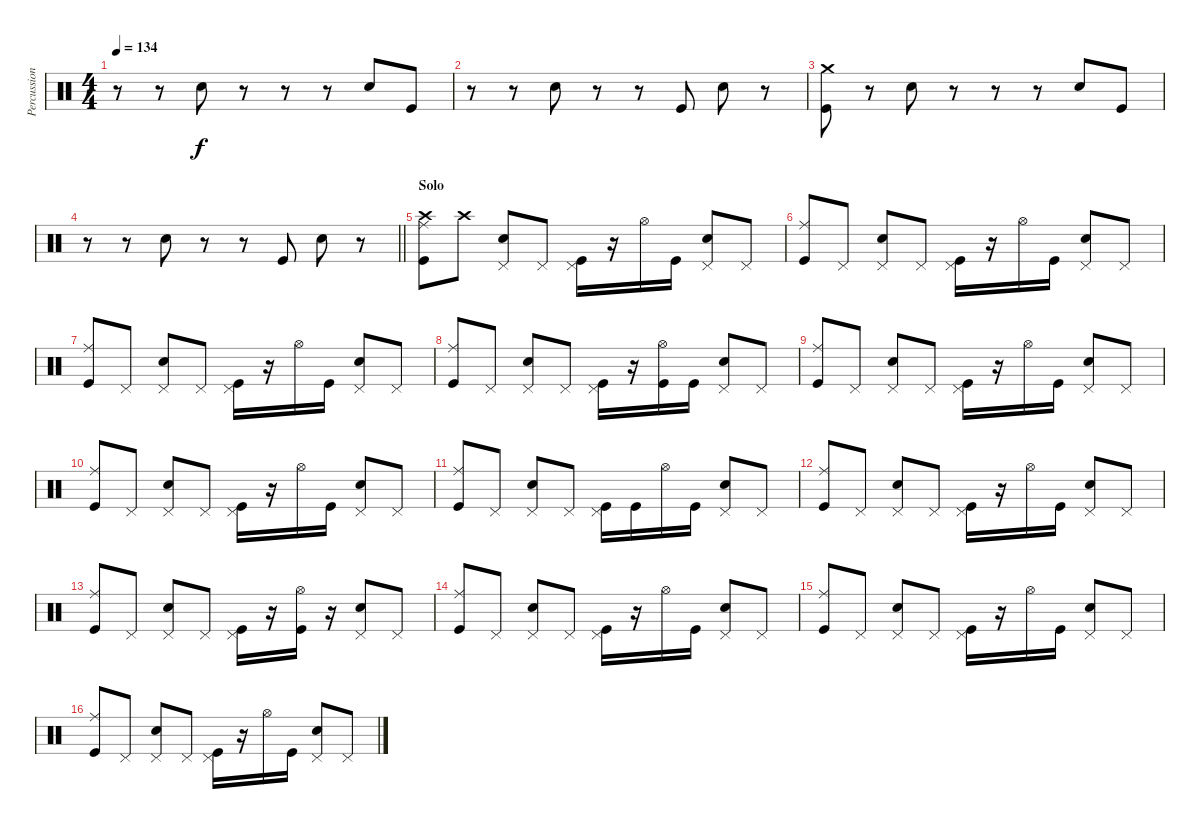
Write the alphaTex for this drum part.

\track ("Percussion" "Percussion") {instrument percussion}
\staff {score}
\articulation defaults
\ts (4 4)
\tempo 134
\clef neutral
\ks c
r.8{dy f} r.8 "Snare (hit) 2".8 r.8 r.8 r.8 "Snare (hit) 2".8 "Kick (hit)".8 |
r.8 r.8 "Snare (hit) 2".8 r.8 r.8 "Kick (hit)".8 "Snare (hit) 2".8 r.8 |
("Crash medium (hit)" "Kick (hit)").8 r.8 "Snare (hit) 2".8 r.8 r.8 r.8 "Snare (hit) 2".8 "Kick (hit)".8 |
\barLineRight lightlight
r.8 r.8 "Snare (hit) 2".8 r.8 r.8 "Kick (hit)".8 "Snare (hit) 2".8 r.8 |
\section ("" "Solo")
("Crash high (hit)" "Ride (middle)" "Kick (hit)").8 "Crash high (hit)".8 ("Pedal Hi-Hat (hit)" "Electric Snare (hit)").8 "Pedal Hi-Hat (hit)".8 ("Pedal Hi-Hat (hit)" "Kick (hit)").16 r.16 "Hi-Hat (open)".16 "Kick (hit)".16 ("Pedal Hi-Hat (hit)" "Electric Snare (hit)").8 "Pedal Hi-Hat (hit)".8 |
("Ride (middle)" "Kick (hit)").8 "Pedal Hi-Hat (hit)".8 ("Pedal Hi-Hat (hit)" "Electric Snare (hit)").8 "Pedal Hi-Hat (hit)".8 ("Pedal Hi-Hat (hit)" "Kick (hit)").16 r.16 "Hi-Hat (open)".16 "Kick (hit)".16 ("Pedal Hi-Hat (hit)" "Electric Snare (hit)").8 "Pedal Hi-Hat (hit)".8 |
("Ride (middle)" "Kick (hit)").8 "Pedal Hi-Hat (hit)".8 ("Pedal Hi-Hat (hit)" "Electric Snare (hit)").8 "Pedal Hi-Hat (hit)".8 ("Pedal Hi-Hat (hit)" "Kick (hit)").16 r.16 "Hi-Hat (open)".16 "Kick (hit)".16 ("Pedal Hi-Hat (hit)" "Electric Snare (hit)").8 "Pedal Hi-Hat (hit)".8 |
("Ride (middle)" "Kick (hit)").8 "Pedal Hi-Hat (hit)".8 ("Pedal Hi-Hat (hit)" "Electric Snare (hit)").8 "Pedal Hi-Hat (hit)".8 ("Pedal Hi-Hat (hit)" "Kick (hit)").16 r.16 ("Hi-Hat (open)" "Kick (hit)").16 "Kick (hit)".16 ("Pedal Hi-Hat (hit)" "Electric Snare (hit)").8 "Pedal Hi-Hat (hit)".8 |
("Ride (middle)" "Kick (hit)").8 "Pedal Hi-Hat (hit)".8 ("Pedal Hi-Hat (hit)" "Electric Snare (hit)").8 "Pedal Hi-Hat (hit)".8 ("Pedal Hi-Hat (hit)" "Kick (hit)").16 r.16 "Hi-Hat (open)".16 "Kick (hit)".16 ("Pedal Hi-Hat (hit)" "Electric Snare (hit)").8 "Pedal Hi-Hat (hit)".8 |
("Ride (middle)" "Kick (hit)").8 "Pedal Hi-Hat (hit)".8 ("Pedal Hi-Hat (hit)" "Electric Snare (hit)").8 "Pedal Hi-Hat (hit)".8 ("Pedal Hi-Hat (hit)" "Kick (hit)").16 r.16 "Hi-Hat (open)".16 "Kick (hit)".16 ("Pedal Hi-Hat (hit)" "Electric Snare (hit)").8 "Pedal Hi-Hat (hit)".8 |
("Ride (middle)" "Kick (hit)").8 "Pedal Hi-Hat (hit)".8 ("Pedal Hi-Hat (hit)" "Electric Snare (hit)").8 "Pedal Hi-Hat (hit)".8 ("Pedal Hi-Hat (hit)" "Kick (hit)").16 "Kick (hit)".16 "Hi-Hat (open)".16 "Kick (hit)".16 ("Pedal Hi-Hat (hit)" "Electric Snare (hit)").8 "Pedal Hi-Hat (hit)".8 |
("Ride (middle)" "Kick (hit)").8 "Pedal Hi-Hat (hit)".8 ("Pedal Hi-Hat (hit)" "Electric Snare (hit)").8 "Pedal Hi-Hat (hit)".8 ("Pedal Hi-Hat (hit)" "Kick (hit)").16 r.16 "Hi-Hat (open)".16 "Kick (hit)".16 ("Pedal Hi-Hat (hit)" "Electric Snare (hit)").8 "Pedal Hi-Hat (hit)".8 |
("Ride (middle)" "Kick (hit)").8 "Pedal Hi-Hat (hit)".8 ("Pedal Hi-Hat (hit)" "Electric Snare (hit)").8 "Pedal Hi-Hat (hit)".8 ("Pedal Hi-Hat (hit)" "Kick (hit)").16 r.16 ("Hi-Hat (open)" "Kick (hit)").16 r.16 ("Pedal Hi-Hat (hit)" "Electric Snare (hit)").8 "Pedal Hi-Hat (hit)".8 |
("Ride (middle)" "Kick (hit)").8 "Pedal Hi-Hat (hit)".8 ("Pedal Hi-Hat (hit)" "Electric Snare (hit)").8 "Pedal Hi-Hat (hit)".8 ("Pedal Hi-Hat (hit)" "Kick (hit)").16 r.16 "Hi-Hat (open)".16 "Kick (hit)".16 ("Pedal Hi-Hat (hit)" "Electric Snare (hit)").8 "Pedal Hi-Hat (hit)".8 |
("Ride (middle)" "Kick (hit)").8 "Pedal Hi-Hat (hit)".8 ("Pedal Hi-Hat (hit)" "Electric Snare (hit)").8 "Pedal Hi-Hat (hit)".8 ("Pedal Hi-Hat (hit)" "Kick (hit)").16 r.16 "Hi-Hat (open)".16 "Kick (hit)".16 ("Pedal Hi-Hat (hit)" "Electric Snare (hit)").8 "Pedal Hi-Hat (hit)".8 |
("Ride (middle)" "Kick (hit)").8 "Pedal Hi-Hat (hit)".8 ("Pedal Hi-Hat (hit)" "Electric Snare (hit)").8 "Pedal Hi-Hat (hit)".8 ("Pedal Hi-Hat (hit)" "Kick (hit)").16 r.16 "Hi-Hat (open)".16 "Kick (hit)".16 ("Pedal Hi-Hat (hit)" "Electric Snare (hit)").8 "Pedal Hi-Hat (hit)".8
